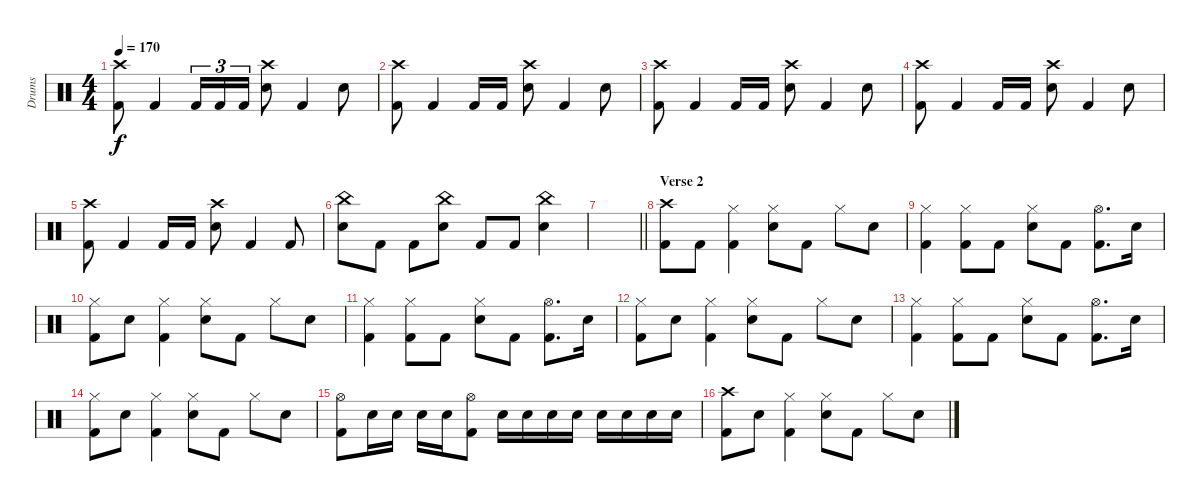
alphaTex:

\track ("Drums" "Drums") {instrument percussion}
\staff {score}
\articulation defaults
\ts (4 4)
\tempo 170
\clef neutral
\ks c
("Crash high (hit)" "Kick (hit) 2").8{dy f} "Kick (hit) 2".4 "Kick (hit) 2".16{tu (3 2)} "Kick (hit) 2".16{tu (3 2)} "Kick (hit) 2".16{tu (3 2)} ("Crash high (hit)" "Electric Snare (hit)").8 "Kick (hit) 2".4 "Electric Snare (hit)".8 |
("Crash high (hit)" "Kick (hit) 2").8 "Kick (hit) 2".4 "Kick (hit) 2".16 "Kick (hit) 2".16 ("Crash high (hit)" "Electric Snare (hit)").8 "Kick (hit) 2".4 "Electric Snare (hit)".8 |
("Crash high (hit)" "Kick (hit) 2").8 "Kick (hit) 2".4 "Kick (hit) 2".16 "Kick (hit) 2".16 ("Crash high (hit)" "Electric Snare (hit)").8 "Kick (hit) 2".4 "Electric Snare (hit)".8 |
("Crash high (hit)" "Kick (hit) 2").8 "Kick (hit) 2".4 "Kick (hit) 2".16 "Kick (hit) 2".16 ("Crash high (hit)" "Electric Snare (hit)").8 "Kick (hit) 2".4 "Electric Snare (hit)".8 |
("Crash high (hit)" "Kick (hit) 2").8 "Kick (hit) 2".4 "Kick (hit) 2".16 "Kick (hit) 2".16 ("Crash high (hit)" "Electric Snare (hit)").8 "Kick (hit) 2".4 "Kick (hit) 2".8 |
("China (hit)" "Electric Snare (hit)").8 "Kick (hit) 2".8 "Kick (hit) 2".8 ("China (hit)" "Electric Snare (hit)").8 "Kick (hit) 2".8 "Kick (hit) 2".8 ("China (hit)" "Electric Snare (hit)").4 |
\barLineRight lightlight
|
\section ("" "Verse 2")
("Crash high (hit)" "Kick (hit) 2").8 "Kick (hit) 2".8 ("Hi-Hat (closed)" "Kick (hit) 2").4 ("Hi-Hat (closed)" "Electric Snare (hit)").8 "Kick (hit) 2".8 "Hi-Hat (closed)".8 "Electric Snare (hit)".8 |
("Hi-Hat (closed)" "Kick (hit) 2").4 ("Hi-Hat (closed)" "Kick (hit) 2").8 "Kick (hit) 2".8 ("Hi-Hat (closed)" "Electric Snare (hit)").8 "Kick (hit) 2".8 ("Hi-Hat (open)" "Kick (hit) 2").8{d} "Electric Snare (hit)".16 |
("Hi-Hat (closed)" "Kick (hit) 2").8 "Electric Snare (hit)".8 ("Hi-Hat (closed)" "Kick (hit) 2").4 ("Hi-Hat (closed)" "Electric Snare (hit)").8 "Kick (hit) 2".8 "Hi-Hat (closed)".8 "Electric Snare (hit)".8 |
("Hi-Hat (closed)" "Kick (hit) 2").4 ("Hi-Hat (closed)" "Kick (hit) 2").8 "Kick (hit) 2".8 ("Hi-Hat (closed)" "Electric Snare (hit)").8 "Kick (hit) 2".8 ("Hi-Hat (open)" "Kick (hit) 2").8{d} "Electric Snare (hit)".16 |
("Hi-Hat (closed)" "Kick (hit) 2").8 "Electric Snare (hit)".8 ("Hi-Hat (closed)" "Kick (hit) 2").4 ("Hi-Hat (closed)" "Electric Snare (hit)").8 "Kick (hit) 2".8 "Hi-Hat (closed)".8 "Electric Snare (hit)".8 |
("Hi-Hat (closed)" "Kick (hit) 2").4 ("Hi-Hat (closed)" "Kick (hit) 2").8 "Kick (hit) 2".8 ("Hi-Hat (closed)" "Electric Snare (hit)").8 "Kick (hit) 2".8 ("Hi-Hat (open)" "Kick (hit) 2").8{d} "Electric Snare (hit)".16 |
("Hi-Hat (closed)" "Kick (hit) 2").8 "Electric Snare (hit)".8 ("Hi-Hat (closed)" "Kick (hit) 2").4 ("Hi-Hat (closed)" "Electric Snare (hit)").8 "Kick (hit) 2".8 "Hi-Hat (closed)".8 "Electric Snare (hit)".8 |
("Hi-Hat (open)" "Kick (hit) 2").8 "Electric Snare (hit)".16 "Electric Snare (hit)".16 "Electric Snare (hit)".16 "Electric Snare (hit)".16 ("Hi-Hat (open)" "Kick (hit) 2").8 "Electric Snare (hit)".16 "Electric Snare (hit)".16 "Electric Snare (hit)".16 "Electric Snare (hit)".16 "Electric Snare (hit)".16 "Electric Snare (hit)".16 "Electric Snare (hit)".16 "Electric Snare (hit)".16 |
("Crash high (hit)" "Kick (hit) 2").8 "Electric Snare (hit)".8 ("Hi-Hat (closed)" "Kick (hit) 2").4 ("Hi-Hat (closed)" "Electric Snare (hit)").8 "Kick (hit) 2".8 "Hi-Hat (closed)".8 "Electric Snare (hit)".8
